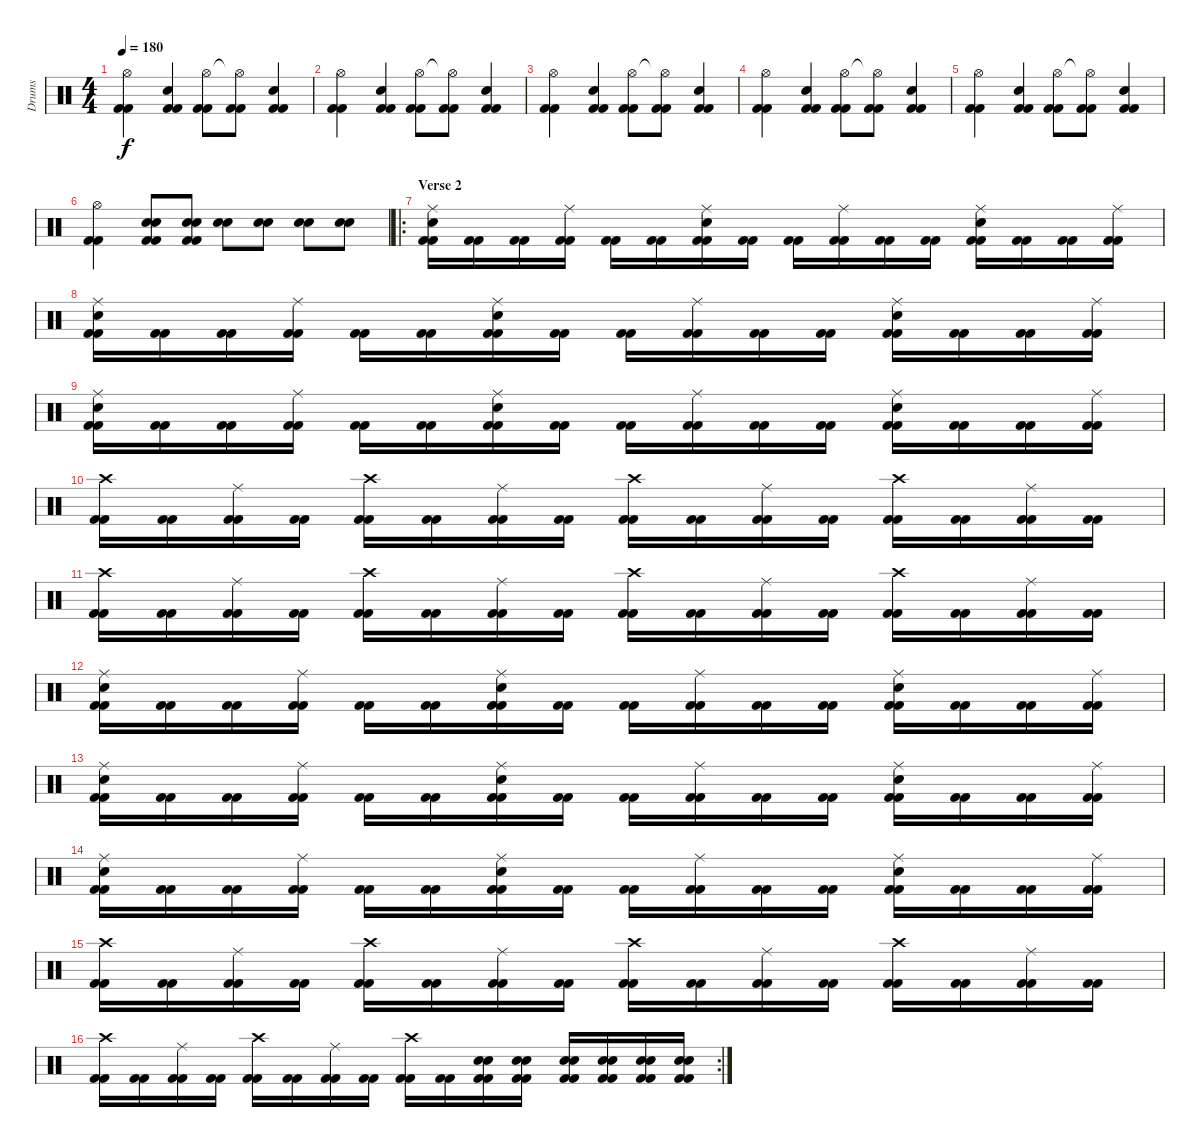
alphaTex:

\track ("Drums" "Drums") {instrument percussion}
\staff {score}
\articulation defaults
\ts (4 4)
\tempo 180
\clef neutral
\ks c
("Hi-Hat (open)" "Kick (hit) 2" "Kick (hit) 2").4{dy f} ("Snare (hit) 2" "Kick (hit) 2" "Kick (hit) 2").4 ("Hi-Hat (open)" "Kick (hit) 2" "Kick (hit) 2").8 ("Hi-Hat (open)"{t} "Kick (hit) 2" "Kick (hit) 2").8 ("Snare (hit) 2" "Kick (hit) 2" "Kick (hit) 2").4 |
("Hi-Hat (open)" "Kick (hit) 2" "Kick (hit) 2").4 ("Snare (hit) 2" "Kick (hit) 2" "Kick (hit) 2").4 ("Hi-Hat (open)" "Kick (hit) 2" "Kick (hit) 2").8 ("Hi-Hat (open)"{t} "Kick (hit) 2" "Kick (hit) 2").8 ("Snare (hit) 2" "Kick (hit) 2" "Kick (hit) 2").4 |
("Hi-Hat (open)" "Kick (hit) 2" "Kick (hit) 2").4 ("Snare (hit) 2" "Kick (hit) 2" "Kick (hit) 2").4 ("Hi-Hat (open)" "Kick (hit) 2" "Kick (hit) 2").8 ("Hi-Hat (open)"{t} "Kick (hit) 2" "Kick (hit) 2").8 ("Snare (hit) 2" "Kick (hit) 2" "Kick (hit) 2").4 |
("Hi-Hat (open)" "Kick (hit) 2" "Kick (hit) 2").4 ("Snare (hit) 2" "Kick (hit) 2" "Kick (hit) 2").4 ("Hi-Hat (open)" "Kick (hit) 2" "Kick (hit) 2").8 ("Hi-Hat (open)"{t} "Kick (hit) 2" "Kick (hit) 2").8 ("Snare (hit) 2" "Kick (hit) 2" "Kick (hit) 2").4 |
("Hi-Hat (open)" "Kick (hit) 2" "Kick (hit) 2").4 ("Snare (hit) 2" "Kick (hit) 2" "Kick (hit) 2").4 ("Hi-Hat (open)" "Kick (hit) 2" "Kick (hit) 2").8 ("Hi-Hat (open)"{t} "Kick (hit) 2" "Kick (hit) 2").8 ("Snare (hit) 2" "Kick (hit) 2" "Kick (hit) 2").4 |
("Hi-Hat (open)" "Kick (hit) 2" "Kick (hit) 2").4 ("Snare (hit) 2" "Snare (hit) 2" "Kick (hit) 2" "Kick (hit) 2").8 ("Snare (hit) 2" "Snare (hit) 2" "Kick (hit) 2" "Kick (hit) 2").8 ("Snare (hit) 2" "Snare (hit) 2").8 ("Snare (hit) 2" "Snare (hit) 2").8 ("Snare (hit) 2" "Snare (hit) 2").8 ("Snare (hit) 2" "Snare (hit) 2").8 |
\ro
\section ("" "Verse 2")
("Kick (hit) 2" "Kick (hit) 2" "Electric Snare (hit)" "Ride (middle)").16 ("Kick (hit) 2" "Kick (hit) 2").16 ("Kick (hit) 2" "Kick (hit) 2").16 ("Kick (hit) 2" "Kick (hit) 2" "Ride (middle)").16 ("Kick (hit) 2" "Kick (hit) 2").16 ("Kick (hit) 2" "Kick (hit) 2").16 ("Kick (hit) 2" "Kick (hit) 2" "Electric Snare (hit)" "Ride (middle)").16 ("Kick (hit) 2" "Kick (hit) 2").16 ("Kick (hit) 2" "Kick (hit) 2").16 ("Kick (hit) 2" "Kick (hit) 2" "Ride (middle)").16 ("Kick (hit) 2" "Kick (hit) 2").16 ("Kick (hit) 2" "Kick (hit) 2").16 ("Kick (hit) 2" "Kick (hit) 2" "Electric Snare (hit)" "Ride (middle)").16 ("Kick (hit) 2" "Kick (hit) 2").16 ("Kick (hit) 2" "Kick (hit) 2").16 ("Kick (hit) 2" "Kick (hit) 2" "Ride (middle)").16 |
("Kick (hit) 2" "Kick (hit) 2" "Electric Snare (hit)" "Ride (middle)").16 ("Kick (hit) 2" "Kick (hit) 2").16 ("Kick (hit) 2" "Kick (hit) 2").16 ("Kick (hit) 2" "Kick (hit) 2" "Ride (middle)").16 ("Kick (hit) 2" "Kick (hit) 2").16 ("Kick (hit) 2" "Kick (hit) 2").16 ("Kick (hit) 2" "Kick (hit) 2" "Electric Snare (hit)" "Ride (middle)").16 ("Kick (hit) 2" "Kick (hit) 2").16 ("Kick (hit) 2" "Kick (hit) 2").16 ("Kick (hit) 2" "Kick (hit) 2" "Ride (middle)").16 ("Kick (hit) 2" "Kick (hit) 2").16 ("Kick (hit) 2" "Kick (hit) 2").16 ("Kick (hit) 2" "Kick (hit) 2" "Electric Snare (hit)" "Ride (middle)").16 ("Kick (hit) 2" "Kick (hit) 2").16 ("Kick (hit) 2" "Kick (hit) 2").16 ("Kick (hit) 2" "Kick (hit) 2" "Ride (middle)").16 |
("Kick (hit) 2" "Kick (hit) 2" "Electric Snare (hit)" "Ride (middle)").16 ("Kick (hit) 2" "Kick (hit) 2").16 ("Kick (hit) 2" "Kick (hit) 2").16 ("Kick (hit) 2" "Kick (hit) 2" "Ride (middle)").16 ("Kick (hit) 2" "Kick (hit) 2").16 ("Kick (hit) 2" "Kick (hit) 2").16 ("Kick (hit) 2" "Kick (hit) 2" "Electric Snare (hit)" "Ride (middle)").16 ("Kick (hit) 2" "Kick (hit) 2").16 ("Kick (hit) 2" "Kick (hit) 2").16 ("Kick (hit) 2" "Kick (hit) 2" "Ride (middle)").16 ("Kick (hit) 2" "Kick (hit) 2").16 ("Kick (hit) 2" "Kick (hit) 2").16 ("Kick (hit) 2" "Kick (hit) 2" "Electric Snare (hit)" "Ride (middle)").16 ("Kick (hit) 2" "Kick (hit) 2").16 ("Kick (hit) 2" "Kick (hit) 2").16 ("Kick (hit) 2" "Kick (hit) 2" "Ride (middle)").16 |
("Kick (hit) 2" "Kick (hit) 2" "Crash high (hit)").16 ("Kick (hit) 2" "Kick (hit) 2").16 ("Kick (hit) 2" "Kick (hit) 2" "Ride (middle)").16 ("Kick (hit) 2" "Kick (hit) 2").16 ("Kick (hit) 2" "Kick (hit) 2" "Crash high (hit)").16 ("Kick (hit) 2" "Kick (hit) 2").16 ("Kick (hit) 2" "Kick (hit) 2" "Ride (middle)").16 ("Kick (hit) 2" "Kick (hit) 2").16 ("Kick (hit) 2" "Kick (hit) 2" "Crash high (hit)").16 ("Kick (hit) 2" "Kick (hit) 2").16 ("Kick (hit) 2" "Kick (hit) 2" "Ride (middle)").16 ("Kick (hit) 2" "Kick (hit) 2").16 ("Kick (hit) 2" "Kick (hit) 2" "Crash high (hit)").16 ("Kick (hit) 2" "Kick (hit) 2").16 ("Kick (hit) 2" "Kick (hit) 2" "Ride (middle)").16 ("Kick (hit) 2" "Kick (hit) 2").16 |
("Kick (hit) 2" "Kick (hit) 2" "Crash high (hit)").16 ("Kick (hit) 2" "Kick (hit) 2").16 ("Kick (hit) 2" "Kick (hit) 2" "Ride (middle)").16 ("Kick (hit) 2" "Kick (hit) 2").16 ("Kick (hit) 2" "Kick (hit) 2" "Crash high (hit)").16 ("Kick (hit) 2" "Kick (hit) 2").16 ("Kick (hit) 2" "Kick (hit) 2" "Ride (middle)").16 ("Kick (hit) 2" "Kick (hit) 2").16 ("Kick (hit) 2" "Kick (hit) 2" "Crash high (hit)").16 ("Kick (hit) 2" "Kick (hit) 2").16 ("Kick (hit) 2" "Kick (hit) 2" "Ride (middle)").16 ("Kick (hit) 2" "Kick (hit) 2").16 ("Kick (hit) 2" "Kick (hit) 2" "Crash high (hit)").16 ("Kick (hit) 2" "Kick (hit) 2").16 ("Kick (hit) 2" "Kick (hit) 2" "Ride (middle)").16 ("Kick (hit) 2" "Kick (hit) 2").16 |
("Kick (hit) 2" "Kick (hit) 2" "Electric Snare (hit)" "Ride (middle)").16 ("Kick (hit) 2" "Kick (hit) 2").16 ("Kick (hit) 2" "Kick (hit) 2").16 ("Kick (hit) 2" "Kick (hit) 2" "Ride (middle)").16 ("Kick (hit) 2" "Kick (hit) 2").16 ("Kick (hit) 2" "Kick (hit) 2").16 ("Kick (hit) 2" "Kick (hit) 2" "Electric Snare (hit)" "Ride (middle)").16 ("Kick (hit) 2" "Kick (hit) 2").16 ("Kick (hit) 2" "Kick (hit) 2").16 ("Kick (hit) 2" "Kick (hit) 2" "Ride (middle)").16 ("Kick (hit) 2" "Kick (hit) 2").16 ("Kick (hit) 2" "Kick (hit) 2").16 ("Kick (hit) 2" "Kick (hit) 2" "Electric Snare (hit)" "Ride (middle)").16 ("Kick (hit) 2" "Kick (hit) 2").16 ("Kick (hit) 2" "Kick (hit) 2").16 ("Kick (hit) 2" "Kick (hit) 2" "Ride (middle)").16 |
("Kick (hit) 2" "Kick (hit) 2" "Electric Snare (hit)" "Ride (middle)").16 ("Kick (hit) 2" "Kick (hit) 2").16 ("Kick (hit) 2" "Kick (hit) 2").16 ("Kick (hit) 2" "Kick (hit) 2" "Ride (middle)").16 ("Kick (hit) 2" "Kick (hit) 2").16 ("Kick (hit) 2" "Kick (hit) 2").16 ("Kick (hit) 2" "Kick (hit) 2" "Electric Snare (hit)" "Ride (middle)").16 ("Kick (hit) 2" "Kick (hit) 2").16 ("Kick (hit) 2" "Kick (hit) 2").16 ("Kick (hit) 2" "Kick (hit) 2" "Ride (middle)").16 ("Kick (hit) 2" "Kick (hit) 2").16 ("Kick (hit) 2" "Kick (hit) 2").16 ("Kick (hit) 2" "Kick (hit) 2" "Electric Snare (hit)" "Ride (middle)").16 ("Kick (hit) 2" "Kick (hit) 2").16 ("Kick (hit) 2" "Kick (hit) 2").16 ("Kick (hit) 2" "Kick (hit) 2" "Ride (middle)").16 |
("Kick (hit) 2" "Kick (hit) 2" "Electric Snare (hit)" "Ride (middle)").16 ("Kick (hit) 2" "Kick (hit) 2").16 ("Kick (hit) 2" "Kick (hit) 2").16 ("Kick (hit) 2" "Kick (hit) 2" "Ride (middle)").16 ("Kick (hit) 2" "Kick (hit) 2").16 ("Kick (hit) 2" "Kick (hit) 2").16 ("Kick (hit) 2" "Kick (hit) 2" "Electric Snare (hit)" "Ride (middle)").16 ("Kick (hit) 2" "Kick (hit) 2").16 ("Kick (hit) 2" "Kick (hit) 2").16 ("Kick (hit) 2" "Kick (hit) 2" "Ride (middle)").16 ("Kick (hit) 2" "Kick (hit) 2").16 ("Kick (hit) 2" "Kick (hit) 2").16 ("Kick (hit) 2" "Kick (hit) 2" "Electric Snare (hit)" "Ride (middle)").16 ("Kick (hit) 2" "Kick (hit) 2").16 ("Kick (hit) 2" "Kick (hit) 2").16 ("Kick (hit) 2" "Kick (hit) 2" "Ride (middle)").16 |
("Kick (hit) 2" "Kick (hit) 2" "Crash high (hit)").16 ("Kick (hit) 2" "Kick (hit) 2").16 ("Kick (hit) 2" "Kick (hit) 2" "Ride (middle)").16 ("Kick (hit) 2" "Kick (hit) 2").16 ("Kick (hit) 2" "Kick (hit) 2" "Crash high (hit)").16 ("Kick (hit) 2" "Kick (hit) 2").16 ("Kick (hit) 2" "Kick (hit) 2" "Ride (middle)").16 ("Kick (hit) 2" "Kick (hit) 2").16 ("Kick (hit) 2" "Kick (hit) 2" "Crash high (hit)").16 ("Kick (hit) 2" "Kick (hit) 2").16 ("Kick (hit) 2" "Kick (hit) 2" "Ride (middle)").16 ("Kick (hit) 2" "Kick (hit) 2").16 ("Kick (hit) 2" "Kick (hit) 2" "Crash high (hit)").16 ("Kick (hit) 2" "Kick (hit) 2").16 ("Kick (hit) 2" "Kick (hit) 2" "Ride (middle)").16 ("Kick (hit) 2" "Kick (hit) 2").16 |
\rc 2
("Kick (hit) 2" "Kick (hit) 2" "Crash high (hit)").16 ("Kick (hit) 2" "Kick (hit) 2").16 ("Kick (hit) 2" "Kick (hit) 2" "Ride (middle)").16 ("Kick (hit) 2" "Kick (hit) 2").16 ("Kick (hit) 2" "Kick (hit) 2" "Crash high (hit)").16 ("Kick (hit) 2" "Kick (hit) 2").16 ("Kick (hit) 2" "Kick (hit) 2" "Ride (middle)").16 ("Kick (hit) 2" "Kick (hit) 2").16 ("Kick (hit) 2" "Kick (hit) 2" "Crash high (hit)").16 ("Kick (hit) 2" "Kick (hit) 2").16 ("Kick (hit) 2" "Kick (hit) 2" "Snare (hit) 2" "Snare (hit) 2").16 ("Kick (hit) 2" "Kick (hit) 2" "Snare (hit) 2" "Snare (hit) 2").16 ("Kick (hit) 2" "Kick (hit) 2" "Snare (hit) 2" "Snare (hit) 2").16 ("Kick (hit) 2" "Kick (hit) 2" "Snare (hit) 2" "Snare (hit) 2").16 ("Kick (hit) 2" "Kick (hit) 2" "Snare (hit) 2" "Snare (hit) 2").16 ("Kick (hit) 2" "Kick (hit) 2" "Snare (hit) 2" "Snare (hit) 2").16
